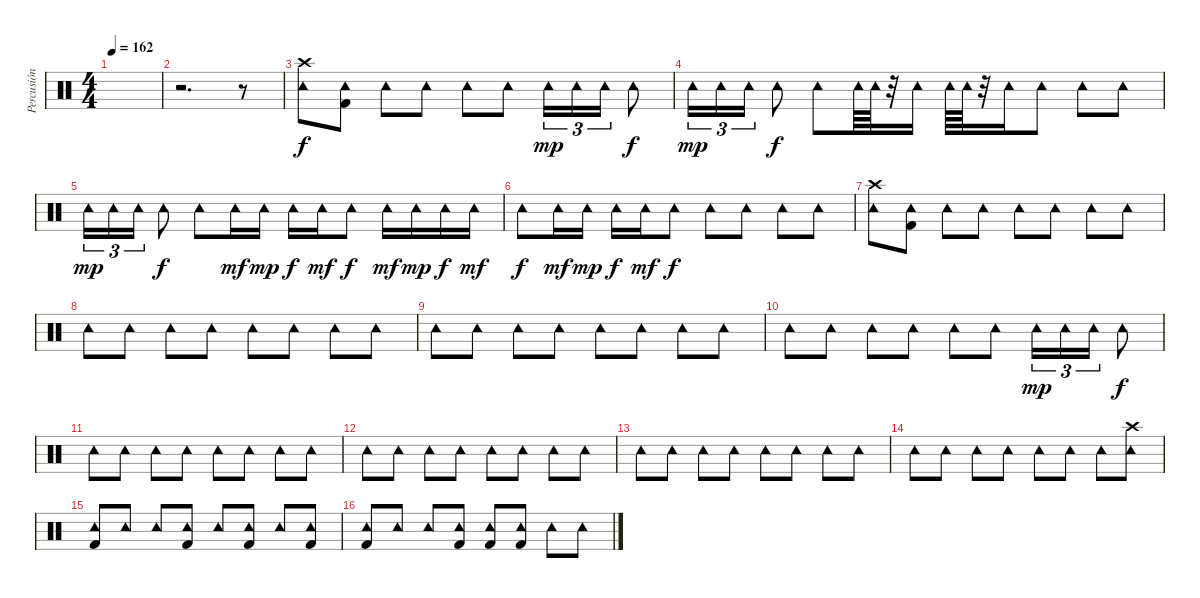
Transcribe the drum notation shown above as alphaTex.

\track ("Percusión" "Percusión") {instrument percussion}
\staff {score}
\articulation defaults
\ts (4 4)
\tempo 162
\clef neutral
\ks c
|
r.2{d} r.8 |
("Crash high (hit)" "Tambourine (hit)").8 ("Tambourine (hit)" "Kick (hit) 2").8 "Tambourine (hit)".8 "Tambourine (hit)".8 "Tambourine (hit)".8 "Tambourine (hit)".8 "Tambourine (hit)".16{tu (3 2) dy mp} "Tambourine (hit)".16{tu (3 2)} "Tambourine (hit)".16{tu (3 2)} "Tambourine (hit)".8{dy f} |
"Tambourine (hit)".16{tu (3 2) dy mp} "Tambourine (hit)".16{tu (3 2)} "Tambourine (hit)".16{tu (3 2)} "Tambourine (hit)".8{dy f} "Tambourine (hit)".8 "Tambourine (hit)".64 "Tambourine (hit)".64 r.32 "Tambourine (hit)".16 "Tambourine (hit)".64 "Tambourine (hit)".64 r.32 "Tambourine (hit)".16 "Tambourine (hit)".8 "Tambourine (hit)".8 "Tambourine (hit)".8 |
"Tambourine (hit)".16{tu (3 2) dy mp} "Tambourine (hit)".16{tu (3 2)} "Tambourine (hit)".16{tu (3 2)} "Tambourine (hit)".8{dy f} "Tambourine (hit)".8 "Tambourine (hit)".16{dy mf} "Tambourine (hit)".16{dy mp} "Tambourine (hit)".16{dy f} "Tambourine (hit)".16{dy mf} "Tambourine (hit)".8{dy f} "Tambourine (hit)".16{dy mf} "Tambourine (hit)".16{dy mp} "Tambourine (hit)".16{dy f} "Tambourine (hit)".16{dy mf} |
"Tambourine (hit)".8{dy f} "Tambourine (hit)".16{dy mf} "Tambourine (hit)".16{dy mp} "Tambourine (hit)".16{dy f} "Tambourine (hit)".16{dy mf} "Tambourine (hit)".8{dy f} "Tambourine (hit)".8 "Tambourine (hit)".8 "Tambourine (hit)".8 "Tambourine (hit)".8 |
("Crash high (hit)" "Tambourine (hit)").8 ("Tambourine (hit)" "Kick (hit) 2").8 "Tambourine (hit)".8 "Tambourine (hit)".8 "Tambourine (hit)".8 "Tambourine (hit)".8 "Tambourine (hit)".8 "Tambourine (hit)".8 |
"Tambourine (hit)".8 "Tambourine (hit)".8 "Tambourine (hit)".8 "Tambourine (hit)".8 "Tambourine (hit)".8 "Tambourine (hit)".8 "Tambourine (hit)".8 "Tambourine (hit)".8 |
"Tambourine (hit)".8 "Tambourine (hit)".8 "Tambourine (hit)".8 "Tambourine (hit)".8 "Tambourine (hit)".8 "Tambourine (hit)".8 "Tambourine (hit)".8 "Tambourine (hit)".8 |
"Tambourine (hit)".8 "Tambourine (hit)".8 "Tambourine (hit)".8 "Tambourine (hit)".8 "Tambourine (hit)".8 "Tambourine (hit)".8 "Tambourine (hit)".16{tu (3 2) dy mp} "Tambourine (hit)".16{tu (3 2)} "Tambourine (hit)".16{tu (3 2)} "Tambourine (hit)".8{dy f} |
"Tambourine (hit)".8 "Tambourine (hit)".8 "Tambourine (hit)".8 "Tambourine (hit)".8 "Tambourine (hit)".8 "Tambourine (hit)".8 "Tambourine (hit)".8 "Tambourine (hit)".8 |
"Tambourine (hit)".8 "Tambourine (hit)".8 "Tambourine (hit)".8 "Tambourine (hit)".8 "Tambourine (hit)".8 "Tambourine (hit)".8 "Tambourine (hit)".8 "Tambourine (hit)".8 |
"Tambourine (hit)".8 "Tambourine (hit)".8 "Tambourine (hit)".8 "Tambourine (hit)".8 "Tambourine (hit)".8 "Tambourine (hit)".8 "Tambourine (hit)".8 "Tambourine (hit)".8 |
"Tambourine (hit)".8 "Tambourine (hit)".8 "Tambourine (hit)".8 "Tambourine (hit)".8 "Tambourine (hit)".8 "Tambourine (hit)".8 "Tambourine (hit)".8 ("Crash high (hit)" "Tambourine (hit)").8 |
("Tambourine (hit)" "Kick (hit) 2").8 "Tambourine (hit)".8 "Tambourine (hit)".8 ("Tambourine (hit)" "Kick (hit) 2").8 "Tambourine (hit)".8 ("Tambourine (hit)" "Kick (hit) 2").8 "Tambourine (hit)".8 ("Tambourine (hit)" "Kick (hit) 2").8 |
("Tambourine (hit)" "Kick (hit) 2").8 "Tambourine (hit)".8 "Tambourine (hit)".8 ("Tambourine (hit)" "Kick (hit) 2").8 ("Tambourine (hit)" "Kick (hit) 2").8 ("Tambourine (hit)" "Kick (hit) 2").8 "Tambourine (hit)".8 "Tambourine (hit)".8
